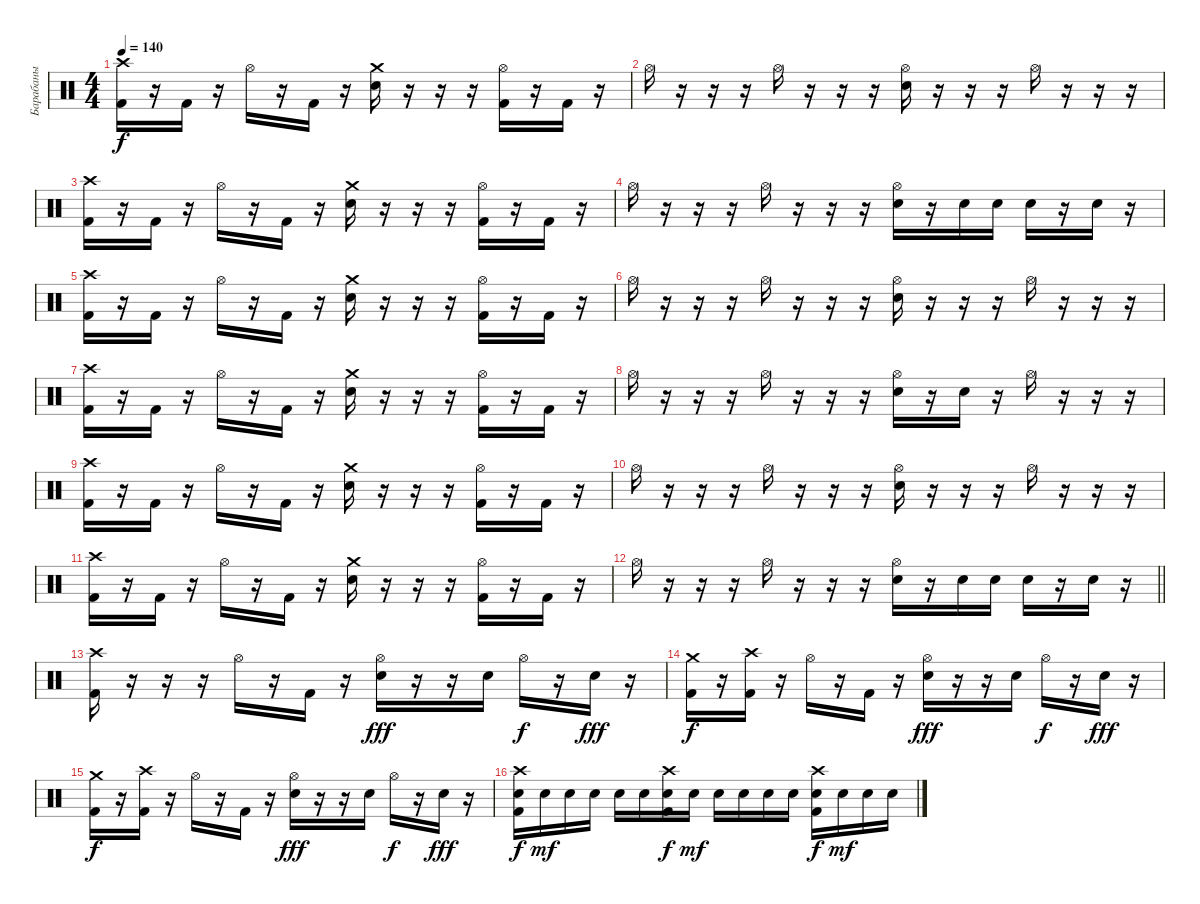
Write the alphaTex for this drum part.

\track ("Барабаны" "Барабаны") {instrument percussion}
\staff {score}
\articulation defaults
\ts (4 4)
\tempo 140
\clef neutral
\ks c
("Crash high (hit)" "Kick (hit) 2").16{dy f} r.16 "Kick (hit) 2".16 r.16 "Hi-Hat (open)".16 r.16 "Kick (hit) 2".16 r.16 ("Crash medium (hit)" "Electric Snare (hit)").16 r.16 r.16 r.16 ("Hi-Hat (open)" "Kick (hit) 2").16 r.16 "Kick (hit) 2".16 r.16 |
"Hi-Hat (open)".16 r.16 r.16 r.16 "Hi-Hat (open)".16 r.16 r.16 r.16 ("Hi-Hat (open)" "Electric Snare (hit)").16 r.16 r.16 r.16 "Hi-Hat (open)".16 r.16 r.16 r.16 |
("Crash high (hit)" "Kick (hit) 2").16 r.16 "Kick (hit) 2".16 r.16 "Hi-Hat (open)".16 r.16 "Kick (hit) 2".16 r.16 ("Crash medium (hit)" "Electric Snare (hit)").16 r.16 r.16 r.16 ("Hi-Hat (open)" "Kick (hit) 2").16 r.16 "Kick (hit) 2".16 r.16 |
"Hi-Hat (open)".16 r.16 r.16 r.16 "Hi-Hat (open)".16 r.16 r.16 r.16 ("Hi-Hat (open)" "Electric Snare (hit)").16 r.16 "Electric Snare (hit)".16 "Electric Snare (hit)".16 "Electric Snare (hit)".16 r.16 "Electric Snare (hit)".16 r.16 |
("Crash high (hit)" "Kick (hit) 2").16 r.16 "Kick (hit) 2".16 r.16 "Hi-Hat (open)".16 r.16 "Kick (hit) 2".16 r.16 ("Crash medium (hit)" "Electric Snare (hit)").16 r.16 r.16 r.16 ("Hi-Hat (open)" "Kick (hit) 2").16 r.16 "Kick (hit) 2".16 r.16 |
"Hi-Hat (open)".16 r.16 r.16 r.16 "Hi-Hat (open)".16 r.16 r.16 r.16 ("Hi-Hat (open)" "Electric Snare (hit)").16 r.16 r.16 r.16 "Hi-Hat (open)".16 r.16 r.16 r.16 |
("Crash high (hit)" "Kick (hit) 2").16 r.16 "Kick (hit) 2".16 r.16 "Hi-Hat (open)".16 r.16 "Kick (hit) 2".16 r.16 ("Crash medium (hit)" "Electric Snare (hit)").16 r.16 r.16 r.16 ("Hi-Hat (open)" "Kick (hit) 2").16 r.16 "Kick (hit) 2".16 r.16 |
"Hi-Hat (open)".16 r.16 r.16 r.16 "Hi-Hat (open)".16 r.16 r.16 r.16 ("Hi-Hat (open)" "Electric Snare (hit)").16 r.16 "Electric Snare (hit)".16 r.16 "Hi-Hat (open)".16 r.16 r.16 r.16 |
("Crash high (hit)" "Kick (hit) 2").16 r.16 "Kick (hit) 2".16 r.16 "Hi-Hat (open)".16 r.16 "Kick (hit) 2".16 r.16 ("Crash medium (hit)" "Electric Snare (hit)").16 r.16 r.16 r.16 ("Hi-Hat (open)" "Kick (hit) 2").16 r.16 "Kick (hit) 2".16 r.16 |
"Hi-Hat (open)".16 r.16 r.16 r.16 "Hi-Hat (open)".16 r.16 r.16 r.16 ("Hi-Hat (open)" "Electric Snare (hit)").16 r.16 r.16 r.16 "Hi-Hat (open)".16 r.16 r.16 r.16 |
("Crash high (hit)" "Kick (hit) 2").16 r.16 "Kick (hit) 2".16 r.16 "Hi-Hat (open)".16 r.16 "Kick (hit) 2".16 r.16 ("Crash medium (hit)" "Electric Snare (hit)").16 r.16 r.16 r.16 ("Hi-Hat (open)" "Kick (hit) 2").16 r.16 "Kick (hit) 2".16 r.16 |
\barLineRight lightlight "Hi-Hat (open)".16
r.16 r.16 r.16 "Hi-Hat (open)".16 r.16 r.16 r.16 ("Hi-Hat (open)" "Electric Snare (hit)").16 r.16 "Electric Snare (hit)".16 "Electric Snare (hit)".16 "Electric Snare (hit)".16 r.16 "Electric Snare (hit)".16 r.16 |
\section ("" " ")
("Crash high (hit)" "Kick (hit) 2").16 r.16 r.16 r.16 "Hi-Hat (open)".16 r.16 "Kick (hit) 2".16 r.16 ("Hi-Hat (open)" "Electric Snare (hit)").16{dy fff} r.16 r.16 "Electric Snare (hit)".16 "Hi-Hat (open)".16{dy f} r.16 "Electric Snare (hit)".16{dy fff} r.16 |
("Crash medium (hit)" "Kick (hit) 2").16{dy f} r.16 ("Crash high (hit)" "Kick (hit) 2").16 r.16 "Hi-Hat (open)".16 r.16 "Kick (hit) 2".16 r.16 ("Hi-Hat (open)" "Electric Snare (hit)").16{dy fff} r.16 r.16 "Electric Snare (hit)".16 "Hi-Hat (open)".16{dy f} r.16 "Electric Snare (hit)".16{dy fff} r.16 |
("Crash medium (hit)" "Kick (hit) 2").16{dy f} r.16 ("Crash high (hit)" "Kick (hit) 2").16 r.16 "Hi-Hat (open)".16 r.16 "Kick (hit) 2".16 r.16 ("Hi-Hat (open)" "Electric Snare (hit)").16{dy fff} r.16 r.16 "Electric Snare (hit)".16 "Hi-Hat (open)".16{dy f} r.16 "Electric Snare (hit)".16{dy fff} r.16 |
("Crash high (hit)" "Electric Snare (hit)" "Kick (hit) 2").16{dy f} "Electric Snare (hit)".16{dy mf} "Electric Snare (hit)".16 "Electric Snare (hit)".16 "Electric Snare (hit)".16 "Electric Snare (hit)".16 ("Crash high (hit)" "Electric Snare (hit)" "Kick (hit) 2").16{dy f} "Electric Snare (hit)".16{dy mf} "Electric Snare (hit)".16 "Electric Snare (hit)".16 "Electric Snare (hit)".16 "Electric Snare (hit)".16 ("Crash high (hit)" "Electric Snare (hit)" "Kick (hit) 2").16{dy f} "Electric Snare (hit)".16{dy mf} "Electric Snare (hit)".16 "Electric Snare (hit)".16
